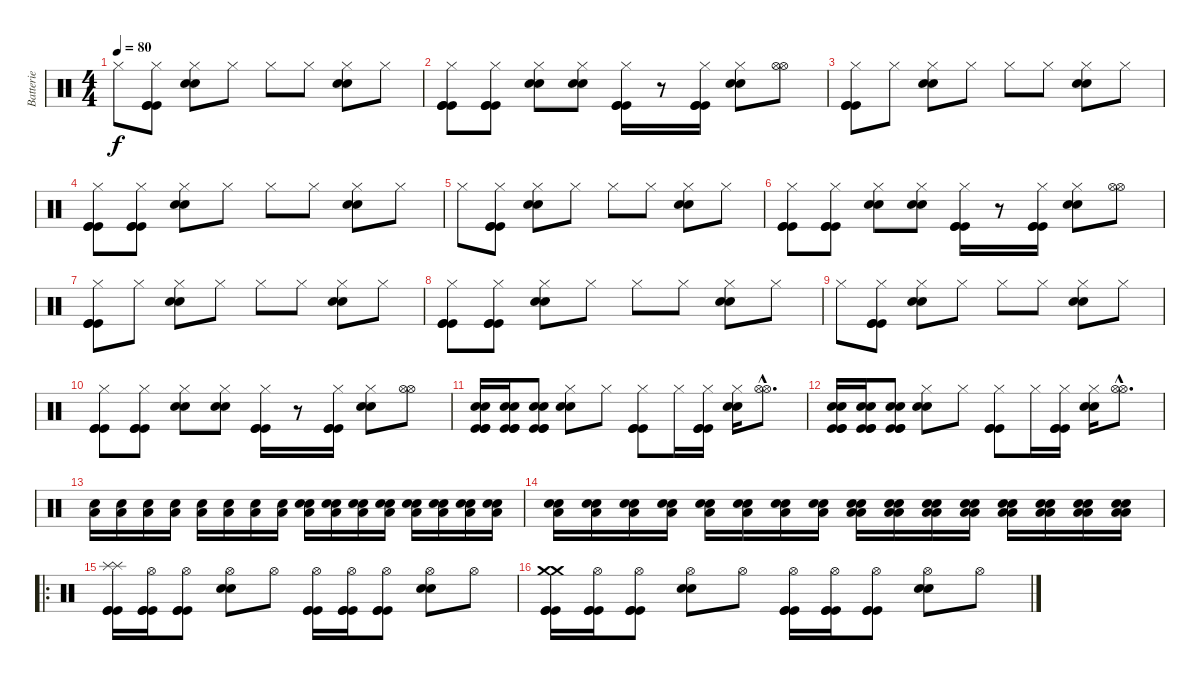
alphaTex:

\track ("Batterie" "Batterie") {instrument percussion}
\staff {score}
\articulation defaults
\ts (4 4)
\tempo 80
\clef neutral
\ks c "Hi-Hat (closed)".8{dy f}
("Hi-Hat (closed)" "Kick (hit)" "Kick (hit)" "Kick (hit)").8 ("Hi-Hat (closed)" "Snare (hit) 2" "Snare (hit) 2").8 "Hi-Hat (closed)".8 "Hi-Hat (closed)".8 "Hi-Hat (closed)".8 ("Hi-Hat (closed)" "Snare (hit) 2" "Snare (hit) 2").8 "Hi-Hat (closed)".8 |
("Hi-Hat (closed)" "Kick (hit)" "Kick (hit)" "Kick (hit)").8 ("Hi-Hat (closed)" "Kick (hit)" "Kick (hit)" "Kick (hit)").8 ("Hi-Hat (closed)" "Snare (hit) 2" "Snare (hit) 2").8 ("Hi-Hat (closed)" "Snare (hit) 2" "Snare (hit) 2").8 ("Hi-Hat (closed)" "Kick (hit)" "Kick (hit)" "Kick (hit)").16 r.8 ("Hi-Hat (closed)" "Kick (hit)" "Kick (hit)" "Kick (hit)").16 ("Hi-Hat (closed)" "Snare (hit) 2" "Snare (hit) 2").8 ("Hi-Hat (open)" "Hi-Hat (open)").8 |
("Hi-Hat (closed)" "Kick (hit)" "Kick (hit)" "Kick (hit)").8 "Hi-Hat (closed)".8 ("Hi-Hat (closed)" "Snare (hit) 2" "Snare (hit) 2").8 "Hi-Hat (closed)".8 "Hi-Hat (closed)".8 "Hi-Hat (closed)".8 ("Hi-Hat (closed)" "Snare (hit) 2" "Snare (hit) 2").8 "Hi-Hat (closed)".8 |
("Hi-Hat (closed)" "Kick (hit)" "Kick (hit)" "Kick (hit)").8 ("Hi-Hat (closed)" "Kick (hit)" "Kick (hit)" "Kick (hit)").8 ("Hi-Hat (closed)" "Snare (hit) 2" "Snare (hit) 2").8 "Hi-Hat (closed)".8 "Hi-Hat (closed)".8 "Hi-Hat (closed)".8 ("Hi-Hat (closed)" "Snare (hit) 2" "Snare (hit) 2").8 "Hi-Hat (closed)".8 |
"Hi-Hat (closed)".8 ("Hi-Hat (closed)" "Kick (hit)" "Kick (hit)" "Kick (hit)").8 ("Hi-Hat (closed)" "Snare (hit) 2" "Snare (hit) 2").8 "Hi-Hat (closed)".8 "Hi-Hat (closed)".8 "Hi-Hat (closed)".8 ("Hi-Hat (closed)" "Snare (hit) 2" "Snare (hit) 2").8 "Hi-Hat (closed)".8 |
("Hi-Hat (closed)" "Kick (hit)" "Kick (hit)" "Kick (hit)").8 ("Hi-Hat (closed)" "Kick (hit)" "Kick (hit)" "Kick (hit)").8 ("Hi-Hat (closed)" "Snare (hit) 2" "Snare (hit) 2").8 ("Hi-Hat (closed)" "Snare (hit) 2" "Snare (hit) 2").8 ("Hi-Hat (closed)" "Kick (hit)" "Kick (hit)" "Kick (hit)").16 r.8 ("Hi-Hat (closed)" "Kick (hit)" "Kick (hit)" "Kick (hit)").16 ("Hi-Hat (closed)" "Snare (hit) 2" "Snare (hit) 2").8 ("Hi-Hat (open)" "Hi-Hat (open)").8 |
("Hi-Hat (closed)" "Kick (hit)" "Kick (hit)" "Kick (hit)").8 "Hi-Hat (closed)".8 ("Hi-Hat (closed)" "Snare (hit) 2" "Snare (hit) 2").8 "Hi-Hat (closed)".8 "Hi-Hat (closed)".8 "Hi-Hat (closed)".8 ("Hi-Hat (closed)" "Snare (hit) 2" "Snare (hit) 2").8 "Hi-Hat (closed)".8 |
("Hi-Hat (closed)" "Kick (hit)" "Kick (hit)" "Kick (hit)").8 ("Hi-Hat (closed)" "Kick (hit)" "Kick (hit)" "Kick (hit)").8 ("Hi-Hat (closed)" "Snare (hit) 2" "Snare (hit) 2").8 "Hi-Hat (closed)".8 "Hi-Hat (closed)".8 "Hi-Hat (closed)".8 ("Hi-Hat (closed)" "Snare (hit) 2" "Snare (hit) 2").8 "Hi-Hat (closed)".8 |
"Hi-Hat (closed)".8 ("Hi-Hat (closed)" "Kick (hit)" "Kick (hit)" "Kick (hit)").8 ("Hi-Hat (closed)" "Snare (hit) 2" "Snare (hit) 2").8 "Hi-Hat (closed)".8 "Hi-Hat (closed)".8 "Hi-Hat (closed)".8 ("Hi-Hat (closed)" "Snare (hit) 2" "Snare (hit) 2").8 "Hi-Hat (closed)".8 |
("Hi-Hat (closed)" "Kick (hit)" "Kick (hit)" "Kick (hit)").8 ("Hi-Hat (closed)" "Kick (hit)" "Kick (hit)" "Kick (hit)").8 ("Hi-Hat (closed)" "Snare (hit) 2" "Snare (hit) 2").8 ("Hi-Hat (closed)" "Snare (hit) 2" "Snare (hit) 2").8 ("Hi-Hat (closed)" "Kick (hit)" "Kick (hit)" "Kick (hit)").16 r.8 ("Hi-Hat (closed)" "Kick (hit)" "Kick (hit)" "Kick (hit)").16 ("Hi-Hat (closed)" "Snare (hit) 2" "Snare (hit) 2").8 ("Hi-Hat (open)" "Hi-Hat (open)").8 |
("Kick (hit)" "Snare (hit) 2" "Kick (hit)" "Kick (hit)" "Snare (hit) 2").16 ("Kick (hit)" "Snare (hit) 2" "Kick (hit)" "Kick (hit)" "Snare (hit) 2").16 ("Kick (hit)" "Snare (hit) 2" "Kick (hit)" "Kick (hit)" "Snare (hit) 2").8 ("Snare (hit) 2" "Hi-Hat (closed)" "Snare (hit) 2").8 "Hi-Hat (closed)".8 ("Kick (hit)" "Hi-Hat (closed)" "Kick (hit)" "Kick (hit)").8 "Hi-Hat (closed)".16 ("Kick (hit)" "Hi-Hat (closed)" "Kick (hit)" "Kick (hit)").16 ("Snare (hit) 2" "Hi-Hat (closed)" "Snare (hit) 2").16 ("Hi-Hat (open)"{hac} "Hi-Hat (open)"{hac}).8{d} |
("Kick (hit)" "Snare (hit) 2" "Kick (hit)" "Kick (hit)" "Snare (hit) 2").16 ("Kick (hit)" "Snare (hit) 2" "Kick (hit)" "Kick (hit)" "Snare (hit) 2").16 ("Kick (hit)" "Snare (hit) 2" "Kick (hit)" "Kick (hit)" "Snare (hit) 2").8 ("Snare (hit) 2" "Hi-Hat (closed)" "Snare (hit) 2").8 "Hi-Hat (closed)".8 ("Kick (hit)" "Hi-Hat (closed)" "Kick (hit)" "Kick (hit)").8 "Hi-Hat (closed)".16 ("Kick (hit)" "Hi-Hat (closed)" "Kick (hit)" "Kick (hit)").16 ("Snare (hit) 2" "Hi-Hat (closed)" "Snare (hit) 2").16 ("Hi-Hat (open)"{hac} "Hi-Hat (open)"{hac}).8{d} |
("Snare (hit) 2" "Low Floor Tom (hit)").16 ("Snare (hit) 2" "Low Floor Tom (hit)").16 ("Snare (hit) 2" "Low Floor Tom (hit)").16 ("Snare (hit) 2" "Low Floor Tom (hit)").16 ("Snare (hit) 2" "Low Floor Tom (hit)").16 ("Snare (hit) 2" "Low Floor Tom (hit)").16 ("Snare (hit) 2" "Low Floor Tom (hit)").16 ("Snare (hit) 2" "Low Floor Tom (hit)").16 ("Snare (hit) 2" "Low Floor Tom (hit)" "Snare (hit) 2").16 ("Snare (hit) 2" "Low Floor Tom (hit)" "Snare (hit) 2").16 ("Snare (hit) 2" "Low Floor Tom (hit)" "Snare (hit) 2").16 ("Snare (hit) 2" "Low Floor Tom (hit)" "Snare (hit) 2").16 ("Snare (hit) 2" "Low Floor Tom (hit)" "Snare (hit) 2").16 ("Snare (hit) 2" "Low Floor Tom (hit)" "Snare (hit) 2").16 ("Snare (hit) 2" "Low Floor Tom (hit)" "Snare (hit) 2").16 ("Snare (hit) 2" "Low Floor Tom (hit)" "Snare (hit) 2").16 |
("Snare (hit) 2" "Low Floor Tom (hit)" "Snare (hit) 2").16 ("Snare (hit) 2" "Low Floor Tom (hit)" "Snare (hit) 2").16 ("Snare (hit) 2" "Low Floor Tom (hit)" "Snare (hit) 2").16 ("Snare (hit) 2" "Low Floor Tom (hit)" "Snare (hit) 2").16 ("Snare (hit) 2" "Low Floor Tom (hit)" "Snare (hit) 2").16 ("Snare (hit) 2" "Low Floor Tom (hit)" "Snare (hit) 2").16 ("Snare (hit) 2" "Low Floor Tom (hit)" "Snare (hit) 2").16 ("Snare (hit) 2" "Low Floor Tom (hit)" "Snare (hit) 2").16 ("Snare (hit) 2" "Low Floor Tom (hit)" "Snare (hit) 2" "Low Floor Tom (hit)").16 ("Snare (hit) 2" "Low Floor Tom (hit)" "Snare (hit) 2" "Low Floor Tom (hit)").16 ("Snare (hit) 2" "Low Floor Tom (hit)" "Snare (hit) 2" "Low Floor Tom (hit)").16 ("Snare (hit) 2" "Low Floor Tom (hit)" "Snare (hit) 2" "Low Floor Tom (hit)").16 ("Snare (hit) 2" "Low Floor Tom (hit)" "Snare (hit) 2" "Low Floor Tom (hit)").16 ("Snare (hit) 2" "Low Floor Tom (hit)" "Snare (hit) 2" "Low Floor Tom (hit)").16 ("Snare (hit) 2" "Low Floor Tom (hit)" "Snare (hit) 2" "Low Floor Tom (hit)").16 ("Snare (hit) 2" "Low Floor Tom (hit)" "Snare (hit) 2" "Low Floor Tom (hit)").16 |
\ro
("Splash (hit)" "Kick (hit)" "Kick (hit)" "Kick (hit)" "Splash (hit)").16 ("Kick (hit)" "Kick (hit)" "Kick (hit)" "Hi-Hat (open)").16 ("Kick (hit)" "Kick (hit)" "Hi-Hat (open)" "Kick (hit)").8 ("Snare (hit) 2" "Snare (hit) 2" "Hi-Hat (open)").8 "Hi-Hat (open)".8 ("Kick (hit)" "Kick (hit)" "Hi-Hat (open)" "Kick (hit)").16 ("Kick (hit)" "Hi-Hat (open)" "Kick (hit)" "Kick (hit)").16 ("Kick (hit)" "Kick (hit)" "Hi-Hat (open)" "Kick (hit)").8 ("Snare (hit) 2" "Hi-Hat (open)" "Snare (hit) 2").8 "Hi-Hat (open)".8 |
("Crash medium (hit)" "Kick (hit)" "Kick (hit)" "Kick (hit)" "Crash medium (hit)").16 ("Kick (hit)" "Kick (hit)" "Kick (hit)" "Hi-Hat (open)").16 ("Kick (hit)" "Kick (hit)" "Hi-Hat (open)" "Kick (hit)").8 ("Snare (hit) 2" "Snare (hit) 2" "Hi-Hat (open)").8 "Hi-Hat (open)".8 ("Kick (hit)" "Kick (hit)" "Hi-Hat (open)" "Kick (hit)").16 ("Kick (hit)" "Kick (hit)" "Kick (hit)" "Hi-Hat (open)").16 ("Kick (hit)" "Kick (hit)" "Hi-Hat (open)" "Kick (hit)").8 ("Snare (hit) 2" "Snare (hit) 2" "Hi-Hat (open)").8 "Hi-Hat (open)".8
